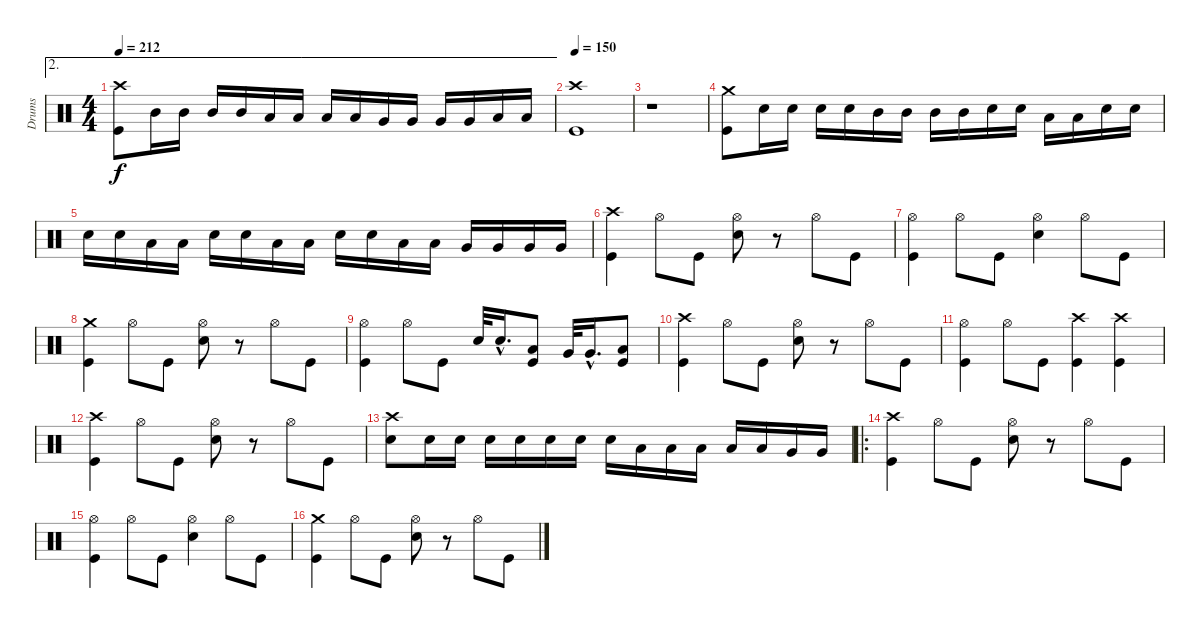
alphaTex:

\track ("Drums" "Drums") {instrument percussion}
\staff {score}
\articulation defaults
\ae 2
\ts (4 4)
\tempo 212
\clef neutral
\ks c
("Crash high (hit)" "Kick (hit)").8{dy f} "Mid Tom (hit)".16 "Mid Tom (hit)".16 "Mid Tom (hit)".16 "Mid Tom (hit)".16 "Low Tom (hit)".16 "Low Tom (hit)".16 "Low Tom (hit)".16 "Low Tom (hit)".16 "Very Low Tom (hit)".16 "Very Low Tom (hit)".16 "Very Low Tom (hit)".16 "Very Low Tom (hit)".16 "Low Floor Tom (hit)".16 "Low Floor Tom (hit)".16 |
\tempo 150
("Crash high (hit)" "Kick (hit)").1 |
r.1 |
("Crash medium (hit)" "Kick (hit)").8 "Electric Snare (hit)".16 "Electric Snare (hit)".16 "Electric Snare (hit)".16 "Electric Snare (hit)".16 "Mid Tom (hit)".16 "Mid Tom (hit)".16 "Mid Tom (hit)".16 "Mid Tom (hit)".16 "Electric Snare (hit)".16 "Electric Snare (hit)".16 "Low Tom (hit)".16 "Low Tom (hit)".16 "Electric Snare (hit)".16 "Electric Snare (hit)".16 |
"Electric Snare (hit)".16 "Electric Snare (hit)".16 "Low Tom (hit)".16 "Low Tom (hit)".16 "Electric Snare (hit)".16 "Electric Snare (hit)".16 "Low Tom (hit)".16 "Low Tom (hit)".16 "Electric Snare (hit)".16 "Electric Snare (hit)".16 "Low Tom (hit)".16 "Low Tom (hit)".16 "Very Low Tom (hit)".16 "Very Low Tom (hit)".16 "Very Low Tom (hit)".16 "Very Low Tom (hit)".16 |
("Crash high (hit)" "Kick (hit)").4 "Hi-Hat (open)".8 "Kick (hit)".8 ("Hi-Hat (open)" "Electric Snare (hit)").8 r.8 "Hi-Hat (open)".8 "Kick (hit)".8 |
("Hi-Hat (open)" "Kick (hit)").4 "Hi-Hat (open)".8 "Kick (hit)".8 ("Hi-Hat (open)" "Electric Snare (hit)").4 "Hi-Hat (open)".8 "Kick (hit)".8 |
("Crash medium (hit)" "Kick (hit)").4 "Hi-Hat (open)".8 "Kick (hit)".8 ("Hi-Hat (open)" "Electric Snare (hit)").8 r.8 "Hi-Hat (open)".8 "Kick (hit)".8 |
("Hi-Hat (open)" "Kick (hit)").4 "Hi-Hat (open)".8 "Kick (hit)".8 "Electric Snare (hit)".32 "Electric Snare (hit)"{hac}.16{d} ("Low Tom (hit)" "Kick (hit)").8 "Very Low Tom (hit)".32 "Very Low Tom (hit)"{hac}.16{d} ("Low Floor Tom (hit)" "Kick (hit)").8 |
("Crash high (hit)" "Kick (hit)").4 "Hi-Hat (open)".8 "Kick (hit)".8 ("Hi-Hat (open)" "Electric Snare (hit)").8 r.8 "Hi-Hat (open)".8 "Kick (hit)".8 |
("Hi-Hat (open)" "Kick (hit)").4 "Hi-Hat (open)".8 "Kick (hit)".8 ("Crash high (hit)" "Kick (hit)").4 ("Crash high (hit)" "Kick (hit)").4 |
("Crash high (hit)" "Kick (hit)").4 "Hi-Hat (open)".8 "Kick (hit)".8 ("Hi-Hat (open)" "Electric Snare (hit)").8 r.8 "Hi-Hat (open)".8 "Kick (hit)".8 |
("Crash high (hit)" "Electric Snare (hit)").8 "Electric Snare (hit)".16 "Electric Snare (hit)".16 "Electric Snare (hit)".16 "Electric Snare (hit)".16 "Electric Snare (hit)".16 "Electric Snare (hit)".16 "Electric Snare (hit)".16 "Low Tom (hit)".16 "Low Tom (hit)".16 "Low Tom (hit)".16 "Low Tom (hit)".16 "Low Tom (hit)".16 "Very Low Tom (hit)".16 "Very Low Tom (hit)".16 |
\ro
("Crash high (hit)" "Kick (hit)").4 "Hi-Hat (open)".8 "Kick (hit)".8 ("Hi-Hat (open)" "Electric Snare (hit)").8 r.8 "Hi-Hat (open)".8 "Kick (hit)".8 |
("Hi-Hat (open)" "Kick (hit)").4 "Hi-Hat (open)".8 "Kick (hit)".8 ("Hi-Hat (open)" "Electric Snare (hit)").4 "Hi-Hat (open)".8 "Kick (hit)".8 |
("Crash medium (hit)" "Kick (hit)").4 "Hi-Hat (open)".8 "Kick (hit)".8 ("Hi-Hat (open)" "Electric Snare (hit)").8 r.8 "Hi-Hat (open)".8 "Kick (hit)".8
